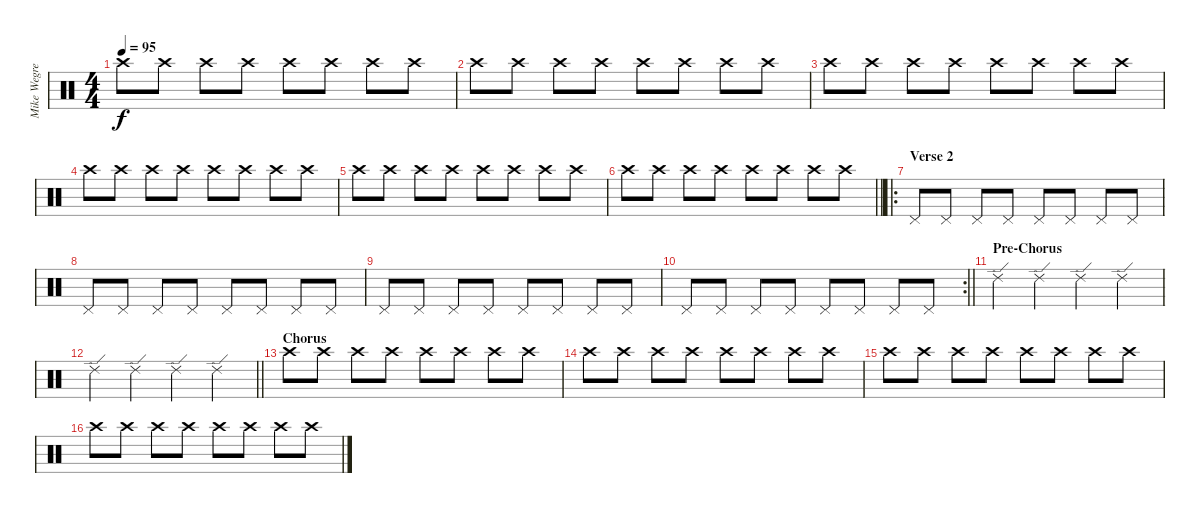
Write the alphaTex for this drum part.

\track ("Mike Wegren" "Mike Wegre") {instrument percussion}
\staff {score}
\articulation defaults
\ts (4 4)
\tempo 95
\clef neutral
\ks c "Crash high (hit)".8{dy f} "Crash high (hit)".8 "Crash high (hit)".8 "Crash high (hit)".8 "Crash high (hit)".8 "Crash high (hit)".8 "Crash high (hit)".8 "Crash high (hit)".8
|
"Crash high (hit)".8 "Crash high (hit)".8 "Crash high (hit)".8 "Crash high (hit)".8 "Crash high (hit)".8 "Crash high (hit)".8 "Crash high (hit)".8 "Crash high (hit)".8 |
"Crash high (hit)".8 "Crash high (hit)".8 "Crash high (hit)".8 "Crash high (hit)".8 "Crash high (hit)".8 "Crash high (hit)".8 "Crash high (hit)".8 "Crash high (hit)".8 |
"Crash high (hit)".8 "Crash high (hit)".8 "Crash high (hit)".8 "Crash high (hit)".8 "Crash high (hit)".8 "Crash high (hit)".8 "Crash high (hit)".8 "Crash high (hit)".8 |
"Crash high (hit)".8 "Crash high (hit)".8 "Crash high (hit)".8 "Crash high (hit)".8 "Crash high (hit)".8 "Crash high (hit)".8 "Crash high (hit)".8 "Crash high (hit)".8 |
\barLineRight lightlight "Crash high (hit)".8 "Crash high (hit)".8 "Crash high (hit)".8 "Crash high (hit)".8 "Crash high (hit)".8 "Crash high (hit)".8 "Crash high (hit)".8 "Crash high (hit)".8
|
\ro
\section ("" "Verse 2")
"Pedal Hi-Hat (hit)".8 "Pedal Hi-Hat (hit)".8 "Pedal Hi-Hat (hit)".8 "Pedal Hi-Hat (hit)".8 "Pedal Hi-Hat (hit)".8 "Pedal Hi-Hat (hit)".8 "Pedal Hi-Hat (hit)".8 "Pedal Hi-Hat (hit)".8 |
"Pedal Hi-Hat (hit)".8 "Pedal Hi-Hat (hit)".8 "Pedal Hi-Hat (hit)".8 "Pedal Hi-Hat (hit)".8 "Pedal Hi-Hat (hit)".8 "Pedal Hi-Hat (hit)".8 "Pedal Hi-Hat (hit)".8 "Pedal Hi-Hat (hit)".8 |
"Pedal Hi-Hat (hit)".8 "Pedal Hi-Hat (hit)".8 "Pedal Hi-Hat (hit)".8 "Pedal Hi-Hat (hit)".8 "Pedal Hi-Hat (hit)".8 "Pedal Hi-Hat (hit)".8 "Pedal Hi-Hat (hit)".8 "Pedal Hi-Hat (hit)".8 |
\rc 2
\barLineRight lightlight "Pedal Hi-Hat (hit)".8 "Pedal Hi-Hat (hit)".8 "Pedal Hi-Hat (hit)".8 "Pedal Hi-Hat (hit)".8 "Pedal Hi-Hat (hit)".8 "Pedal Hi-Hat (hit)".8 "Pedal Hi-Hat (hit)".8 "Pedal Hi-Hat (hit)".8
|
\section ("" "Pre-Chorus")
"Ride (edge) 2".4 "Ride (edge) 2".4 "Ride (edge) 2".4 "Ride (edge) 2".4 |
\barLineRight lightlight "Ride (edge) 2".4 "Ride (edge) 2".4 "Ride (edge) 2".4 "Ride (edge) 2".4
|
\section ("" "Chorus")
"Crash high (hit)".8 "Crash high (hit)".8 "Crash high (hit)".8 "Crash high (hit)".8 "Crash high (hit)".8 "Crash high (hit)".8 "Crash high (hit)".8 "Crash high (hit)".8 |
"Crash high (hit)".8 "Crash high (hit)".8 "Crash high (hit)".8 "Crash high (hit)".8 "Crash high (hit)".8 "Crash high (hit)".8 "Crash high (hit)".8 "Crash high (hit)".8 |
"Crash high (hit)".8 "Crash high (hit)".8 "Crash high (hit)".8 "Crash high (hit)".8 "Crash high (hit)".8 "Crash high (hit)".8 "Crash high (hit)".8 "Crash high (hit)".8 |
"Crash high (hit)".8 "Crash high (hit)".8 "Crash high (hit)".8 "Crash high (hit)".8 "Crash high (hit)".8 "Crash high (hit)".8 "Crash high (hit)".8 "Crash high (hit)".8
